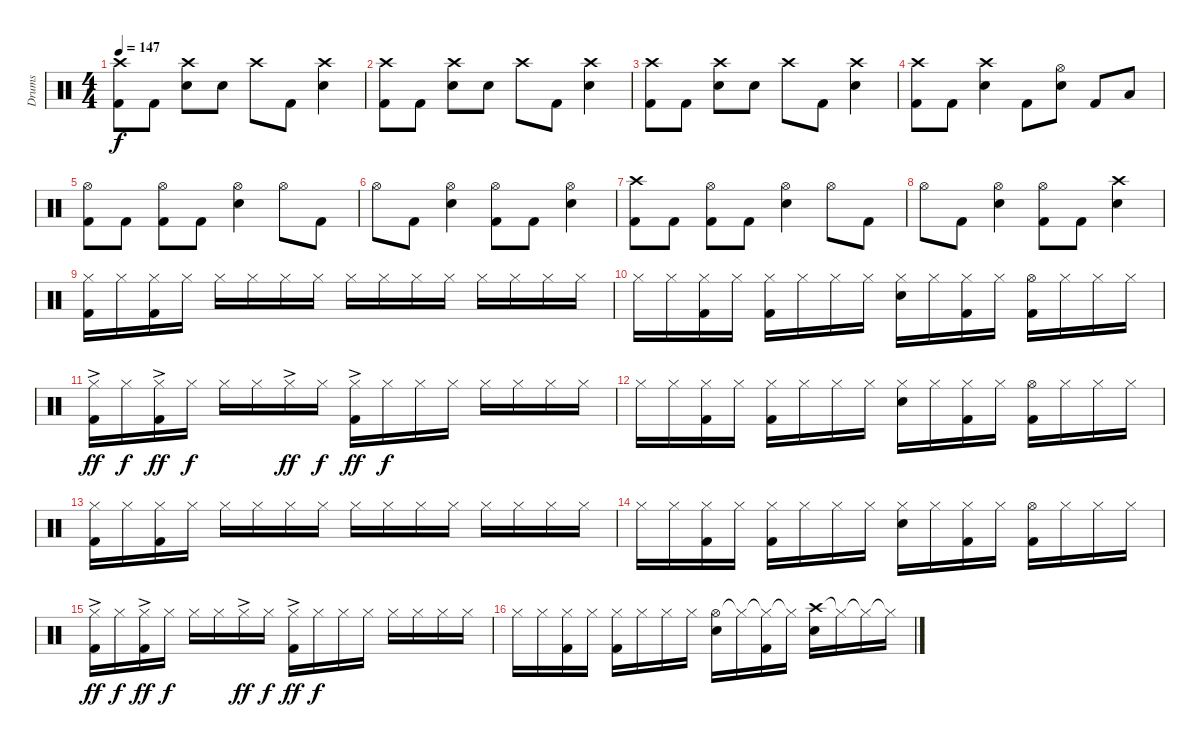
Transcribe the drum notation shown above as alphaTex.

\track ("Drums" "Drums") {instrument percussion}
\staff {score}
\articulation defaults
\ts (4 4)
\tempo 147
\clef neutral
\ks c
("Crash high (hit)" "Kick (hit) 2").8{dy f} "Kick (hit) 2".8 ("Crash high (hit)" "Electric Snare (hit)").8 "Electric Snare (hit)".8 "Crash high (hit)".8 "Kick (hit) 2".8 ("Crash high (hit)" "Electric Snare (hit)").4 |
("Crash high (hit)" "Kick (hit) 2").8 "Kick (hit) 2".8 ("Crash high (hit)" "Electric Snare (hit)").8 "Electric Snare (hit)".8 "Crash high (hit)".8 "Kick (hit) 2".8 ("Crash high (hit)" "Electric Snare (hit)").4 |
("Crash high (hit)" "Kick (hit) 2").8 "Kick (hit) 2".8 ("Crash high (hit)" "Electric Snare (hit)").8 "Electric Snare (hit)".8 "Crash high (hit)".8 "Kick (hit) 2".8 ("Crash high (hit)" "Electric Snare (hit)").4 |
("Crash high (hit)" "Kick (hit) 2").8 "Kick (hit) 2".8 ("Crash high (hit)" "Electric Snare (hit)").4 "Kick (hit) 2".8 ("Hi-Hat (open)" "Electric Snare (hit)").8 "Kick (hit) 2".8 "Low Tom (hit)".8 |
("Hi-Hat (open)" "Kick (hit) 2").8 "Kick (hit) 2".8 ("Hi-Hat (open)" "Kick (hit) 2").8 "Kick (hit) 2".8 ("Hi-Hat (open)" "Electric Snare (hit)").4 "Hi-Hat (open)".8 "Kick (hit) 2".8 |
"Hi-Hat (open)".8 "Kick (hit) 2".8 ("Hi-Hat (open)" "Electric Snare (hit)").4 ("Hi-Hat (open)" "Kick (hit) 2").8 "Kick (hit) 2".8 ("Hi-Hat (open)" "Electric Snare (hit)").4 |
("Crash high (hit)" "Kick (hit) 2").8 "Kick (hit) 2".8 ("Hi-Hat (open)" "Kick (hit) 2").8 "Kick (hit) 2".8 ("Hi-Hat (open)" "Electric Snare (hit)").4 "Hi-Hat (open)".8 "Kick (hit) 2".8 |
"Hi-Hat (open)".8 "Kick (hit) 2".8 ("Hi-Hat (open)" "Electric Snare (hit)").4 ("Hi-Hat (open)" "Kick (hit) 2").8 "Kick (hit) 2".8 ("Crash high (hit)" "Electric Snare (hit)").4 |
("Hi-Hat (closed)" "Kick (hit) 2").16 "Hi-Hat (closed)".16 ("Hi-Hat (closed)" "Kick (hit) 2").16 "Hi-Hat (closed)".16 "Hi-Hat (closed)".16 "Hi-Hat (closed)".16 "Hi-Hat (closed)".16 "Hi-Hat (closed)".16 "Hi-Hat (closed)".16 "Hi-Hat (closed)".16 "Hi-Hat (closed)".16 "Hi-Hat (closed)".16 "Hi-Hat (closed)".16 "Hi-Hat (closed)".16 "Hi-Hat (closed)".16 "Hi-Hat (closed)".16 |
"Hi-Hat (closed)".16 "Hi-Hat (closed)".16 ("Hi-Hat (closed)" "Kick (hit) 2").16 "Hi-Hat (closed)".16 ("Hi-Hat (closed)" "Kick (hit) 2").16 "Hi-Hat (closed)".16 "Hi-Hat (closed)".16 "Hi-Hat (closed)".16 ("Hi-Hat (closed)" "Electric Snare (hit)").16 "Hi-Hat (closed)".16 ("Hi-Hat (closed)" "Kick (hit) 2").16 "Hi-Hat (closed)".16 ("Hi-Hat (open)" "Kick (hit) 2").16 "Hi-Hat (closed)".16 "Hi-Hat (closed)".16 "Hi-Hat (closed)".16 |
("Hi-Hat (closed)"{ac} "Kick (hit) 2").16{dy ff} "Hi-Hat (closed)".16{dy f} ("Hi-Hat (closed)"{ac} "Kick (hit) 2").16{dy ff} "Hi-Hat (closed)".16{dy f} "Hi-Hat (closed)".16 "Hi-Hat (closed)".16 "Hi-Hat (closed)"{ac}.16{dy ff} "Hi-Hat (closed)".16{dy f} ("Hi-Hat (closed)"{ac} "Kick (hit) 2").16{dy ff} "Hi-Hat (closed)".16{dy f} "Hi-Hat (closed)".16 "Hi-Hat (closed)".16 "Hi-Hat (closed)".16 "Hi-Hat (closed)".16 "Hi-Hat (closed)".16 "Hi-Hat (closed)".16 |
"Hi-Hat (closed)".16 "Hi-Hat (closed)".16 ("Hi-Hat (closed)" "Kick (hit) 2").16 "Hi-Hat (closed)".16 ("Hi-Hat (closed)" "Kick (hit) 2").16 "Hi-Hat (closed)".16 "Hi-Hat (closed)".16 "Hi-Hat (closed)".16 ("Hi-Hat (closed)" "Electric Snare (hit)").16 "Hi-Hat (closed)".16 ("Hi-Hat (closed)" "Kick (hit) 2").16 "Hi-Hat (closed)".16 ("Hi-Hat (open)" "Kick (hit) 2").16 "Hi-Hat (closed)".16 "Hi-Hat (closed)".16 "Hi-Hat (closed)".16 |
("Hi-Hat (closed)" "Kick (hit) 2").16 "Hi-Hat (closed)".16 ("Hi-Hat (closed)" "Kick (hit) 2").16 "Hi-Hat (closed)".16 "Hi-Hat (closed)".16 "Hi-Hat (closed)".16 "Hi-Hat (closed)".16 "Hi-Hat (closed)".16 "Hi-Hat (closed)".16 "Hi-Hat (closed)".16 "Hi-Hat (closed)".16 "Hi-Hat (closed)".16 "Hi-Hat (closed)".16 "Hi-Hat (closed)".16 "Hi-Hat (closed)".16 "Hi-Hat (closed)".16 |
"Hi-Hat (closed)".16 "Hi-Hat (closed)".16 ("Hi-Hat (closed)" "Kick (hit) 2").16 "Hi-Hat (closed)".16 ("Hi-Hat (closed)" "Kick (hit) 2").16 "Hi-Hat (closed)".16 "Hi-Hat (closed)".16 "Hi-Hat (closed)".16 ("Hi-Hat (closed)" "Electric Snare (hit)").16 "Hi-Hat (closed)".16 ("Hi-Hat (closed)" "Kick (hit) 2").16 "Hi-Hat (closed)".16 ("Hi-Hat (open)" "Kick (hit) 2").16 "Hi-Hat (closed)".16 "Hi-Hat (closed)".16 "Hi-Hat (closed)".16 |
("Hi-Hat (closed)"{ac} "Kick (hit) 2").16{dy ff} "Hi-Hat (closed)".16{dy f} ("Hi-Hat (closed)"{ac} "Kick (hit) 2").16{dy ff} "Hi-Hat (closed)".16{dy f} "Hi-Hat (closed)".16 "Hi-Hat (closed)".16 "Hi-Hat (closed)"{ac}.16{dy ff} "Hi-Hat (closed)".16{dy f} ("Hi-Hat (closed)"{ac} "Kick (hit) 2").16{dy ff} "Hi-Hat (closed)".16{dy f} "Hi-Hat (closed)".16 "Hi-Hat (closed)".16 "Hi-Hat (closed)".16 "Hi-Hat (closed)".16 "Hi-Hat (closed)".16 "Hi-Hat (closed)".16 |
"Hi-Hat (closed)".16 "Hi-Hat (closed)".16 ("Hi-Hat (closed)" "Kick (hit) 2").16 "Hi-Hat (closed)".16 ("Hi-Hat (closed)" "Kick (hit) 2").16 "Hi-Hat (closed)".16 "Hi-Hat (closed)".16 "Hi-Hat (closed)".16 ("Hi-Hat (open)" "Electric Snare (hit)").16 "Hi-Hat (closed)"{t}.16 ("Hi-Hat (closed)"{t} "Kick (hit) 2").16 "Hi-Hat (closed)"{t}.16 ("Crash high (hit)" "Electric Snare (hit)").16 "Hi-Hat (closed)"{t}.16 "Hi-Hat (closed)"{t}.16 "Hi-Hat (closed)"{t}.16
